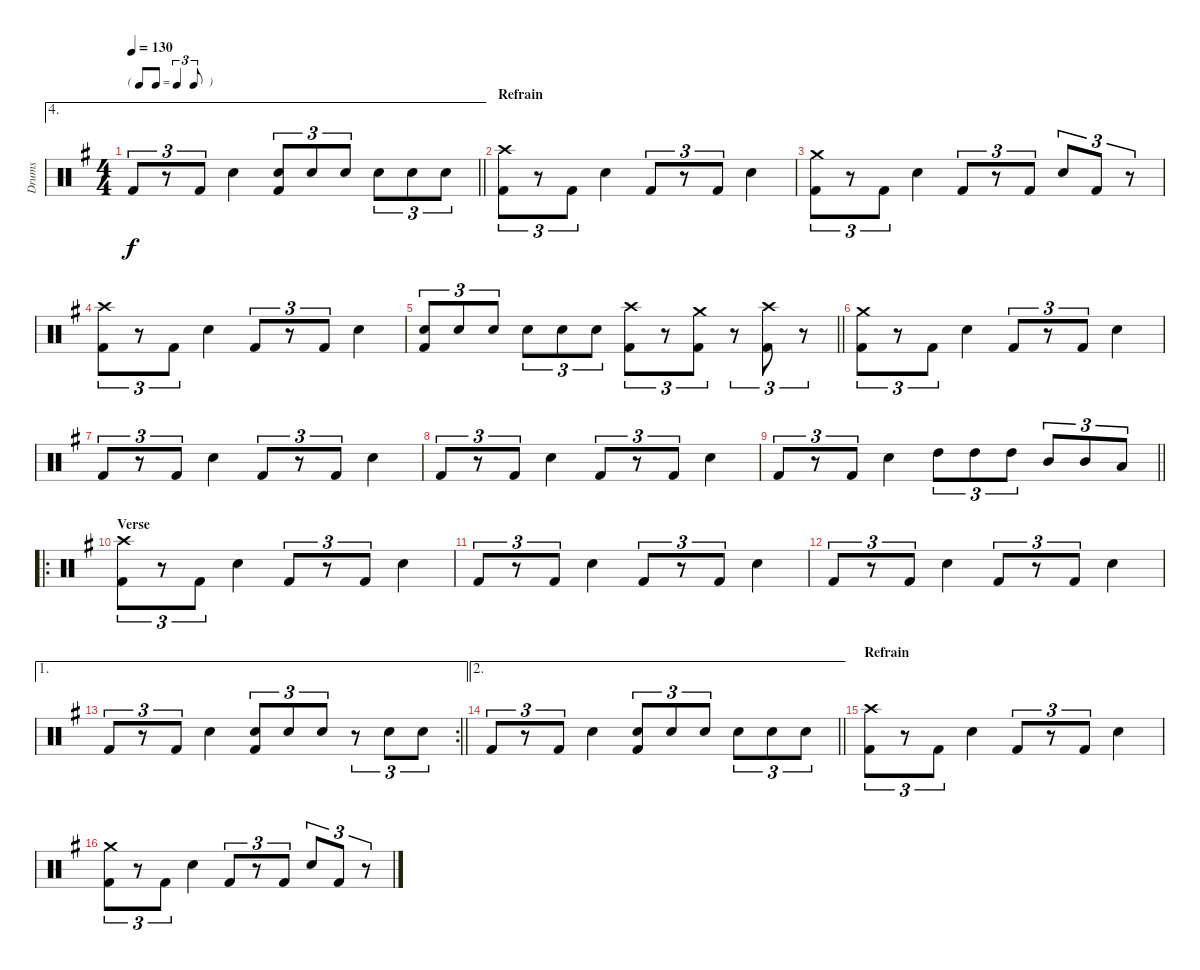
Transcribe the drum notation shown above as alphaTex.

\track ("Drums" "Drums") {instrument percussion}
\staff {score}
\articulation defaults
\ae 4
\ts (4 4)
\tf triplet8th
\tempo 130
\clef neutral
\barLineRight lightlight
\ks eminor "Kick (hit) 2".8{tu (3 2) dy f}
r.8{tu (3 2)} "Kick (hit) 2".8{tu (3 2)} "Snare (hit) 2".4 ("Kick (hit) 2" "Snare (hit) 2").8{tu (3 2)} "Snare (hit) 2".8{tu (3 2)} "Snare (hit) 2".8{tu (3 2)} "Snare (hit) 2".8{tu (3 2)} "Snare (hit) 2".8{tu (3 2)} "Snare (hit) 2".8{tu (3 2)} |
\section ("" "Refrain")
("Kick (hit) 2" "Crash high (hit)").8{tu (3 2)} r.8{tu (3 2)} "Kick (hit) 2".8{tu (3 2)} "Snare (hit) 2".4 "Kick (hit) 2".8{tu (3 2)} r.8{tu (3 2)} "Kick (hit) 2".8{tu (3 2)} "Snare (hit) 2".4 |
("Kick (hit) 2" "Crash medium (hit)").8{tu (3 2)} r.8{tu (3 2)} "Kick (hit) 2".8{tu (3 2)} "Snare (hit) 2".4 "Kick (hit) 2".8{tu (3 2)} r.8{tu (3 2)} "Kick (hit) 2".8{tu (3 2)} "Snare (hit) 2".8{tu (3 2)} "Kick (hit) 2".8{tu (3 2)} r.8{tu (3 2)} |
("Kick (hit) 2" "Crash high (hit)").8{tu (3 2)} r.8{tu (3 2)} "Kick (hit) 2".8{tu (3 2)} "Snare (hit) 2".4 "Kick (hit) 2".8{tu (3 2)} r.8{tu (3 2)} "Kick (hit) 2".8{tu (3 2)} "Snare (hit) 2".4 |
\barLineRight lightlight
("Kick (hit) 2" "Snare (hit) 2").8{tu (3 2)} "Snare (hit) 2".8{tu (3 2)} "Snare (hit) 2".8{tu (3 2)} "Snare (hit) 2".8{tu (3 2)} "Snare (hit) 2".8{tu (3 2)} "Snare (hit) 2".8{tu (3 2)} ("Kick (hit) 2" "Crash high (hit)").8{tu (3 2)} r.8{tu (3 2)} ("Kick (hit) 2" "Crash medium (hit)").8{tu (3 2)} r.8{tu (3 2)} ("Kick (hit) 2" "Crash high (hit)").8{tu (3 2)} r.8{tu (3 2)} |
("Kick (hit) 2" "Crash medium (hit)").8{tu (3 2)} r.8{tu (3 2)} "Kick (hit) 2".8{tu (3 2)} "Snare (hit) 2".4 "Kick (hit) 2".8{tu (3 2)} r.8{tu (3 2)} "Kick (hit) 2".8{tu (3 2)} "Snare (hit) 2".4 |
"Kick (hit) 2".8{tu (3 2)} r.8{tu (3 2)} "Kick (hit) 2".8{tu (3 2)} "Snare (hit) 2".4 "Kick (hit) 2".8{tu (3 2)} r.8{tu (3 2)} "Kick (hit) 2".8{tu (3 2)} "Snare (hit) 2".4 |
"Kick (hit) 2".8{tu (3 2)} r.8{tu (3 2)} "Kick (hit) 2".8{tu (3 2)} "Snare (hit) 2".4 "Kick (hit) 2".8{tu (3 2)} r.8{tu (3 2)} "Kick (hit) 2".8{tu (3 2)} "Snare (hit) 2".4 |
\barLineRight lightlight "Kick (hit) 2".8{tu (3 2)}
r.8{tu (3 2)} "Kick (hit) 2".8{tu (3 2)} "Snare (hit) 2".4 "High Tom (hit)".8{tu (3 2)} "High Tom (hit)".8{tu (3 2)} "High Tom (hit)".8{tu (3 2)} "Mid Tom (hit)".8{tu (3 2)} "Mid Tom (hit)".8{tu (3 2)} "Low Tom (hit)".8{tu (3 2)} |
\ro
\section ("" "Verse")
("Kick (hit) 2" "Crash high (hit)").8{tu (3 2)} r.8{tu (3 2)} "Kick (hit) 2".8{tu (3 2)} "Snare (hit) 2".4 "Kick (hit) 2".8{tu (3 2)} r.8{tu (3 2)} "Kick (hit) 2".8{tu (3 2)} "Snare (hit) 2".4 |
"Kick (hit) 2".8{tu (3 2)} r.8{tu (3 2)} "Kick (hit) 2".8{tu (3 2)} "Snare (hit) 2".4 "Kick (hit) 2".8{tu (3 2)} r.8{tu (3 2)} "Kick (hit) 2".8{tu (3 2)} "Snare (hit) 2".4 |
"Kick (hit) 2".8{tu (3 2)} r.8{tu (3 2)} "Kick (hit) 2".8{tu (3 2)} "Snare (hit) 2".4 "Kick (hit) 2".8{tu (3 2)} r.8{tu (3 2)} "Kick (hit) 2".8{tu (3 2)} "Snare (hit) 2".4 |
\ae 1
\rc 2
\barLineRight lightlight "Kick (hit) 2".8{tu (3 2)}
r.8{tu (3 2)} "Kick (hit) 2".8{tu (3 2)} "Snare (hit) 2".4 ("Kick (hit) 2" "Snare (hit) 2").8{tu (3 2)} "Snare (hit) 2".8{tu (3 2)} "Snare (hit) 2".8{tu (3 2)} r.8{tu (3 2)} "Snare (hit) 2".8{tu (3 2)} "Snare (hit) 2".8{tu (3 2)} |
\ae 2
\barLineRight lightlight "Kick (hit) 2".8{tu (3 2)}
r.8{tu (3 2)} "Kick (hit) 2".8{tu (3 2)} "Snare (hit) 2".4 ("Kick (hit) 2" "Snare (hit) 2").8{tu (3 2)} "Snare (hit) 2".8{tu (3 2)} "Snare (hit) 2".8{tu (3 2)} "Snare (hit) 2".8{tu (3 2)} "Snare (hit) 2".8{tu (3 2)} "Snare (hit) 2".8{tu (3 2)} |
\section ("" "Refrain")
("Kick (hit) 2" "Crash high (hit)").8{tu (3 2)} r.8{tu (3 2)} "Kick (hit) 2".8{tu (3 2)} "Snare (hit) 2".4 "Kick (hit) 2".8{tu (3 2)} r.8{tu (3 2)} "Kick (hit) 2".8{tu (3 2)} "Snare (hit) 2".4 |
("Kick (hit) 2" "Crash medium (hit)").8{tu (3 2)} r.8{tu (3 2)} "Kick (hit) 2".8{tu (3 2)} "Snare (hit) 2".4 "Kick (hit) 2".8{tu (3 2)} r.8{tu (3 2)} "Kick (hit) 2".8{tu (3 2)} "Snare (hit) 2".8{tu (3 2)} "Kick (hit) 2".8{tu (3 2)} r.8{tu (3 2)}
